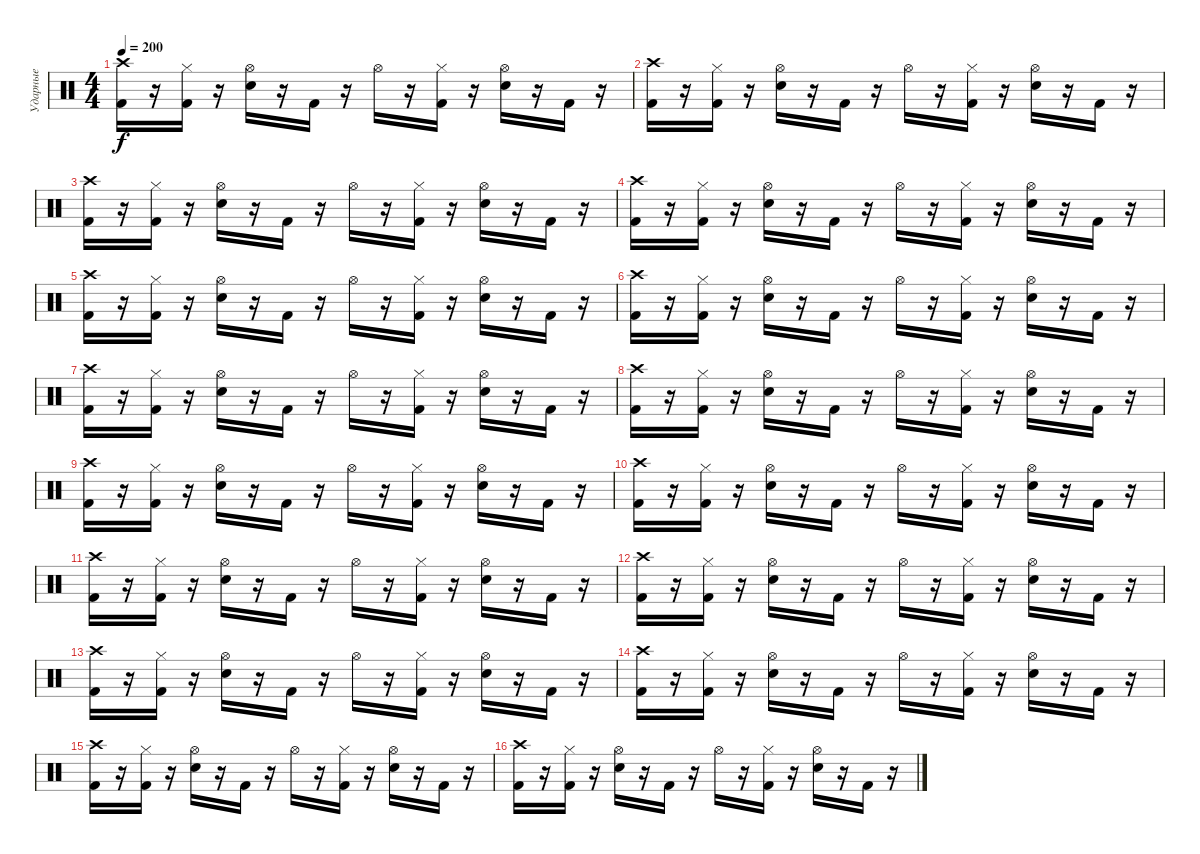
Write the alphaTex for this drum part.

\track ("Ударные" "Ударные") {instrument percussion}
\staff {score}
\articulation defaults
\ts (4 4)
\tempo 200
\clef neutral
\ks c
("Crash high (hit)" "Kick (hit) 2").16{dy f} r.16 ("Hi-Hat (closed)" "Kick (hit) 2").16 r.16 ("Hi-Hat (open)" "Electric Snare (hit)").16 r.16 "Kick (hit) 2".16 r.16 "Hi-Hat (open)".16 r.16 ("Hi-Hat (closed)" "Kick (hit) 2").16 r.16 ("Hi-Hat (open)" "Electric Snare (hit)").16 r.16 "Kick (hit) 2".16 r.16 |
("Crash high (hit)" "Kick (hit) 2").16 r.16 ("Hi-Hat (closed)" "Kick (hit) 2").16 r.16 ("Hi-Hat (open)" "Electric Snare (hit)").16 r.16 "Kick (hit) 2".16 r.16 "Hi-Hat (open)".16 r.16 ("Hi-Hat (closed)" "Kick (hit) 2").16 r.16 ("Hi-Hat (open)" "Electric Snare (hit)").16 r.16 "Kick (hit) 2".16 r.16 |
("Crash high (hit)" "Kick (hit) 2").16 r.16 ("Hi-Hat (closed)" "Kick (hit) 2").16 r.16 ("Hi-Hat (open)" "Electric Snare (hit)").16 r.16 "Kick (hit) 2".16 r.16 "Hi-Hat (open)".16 r.16 ("Hi-Hat (closed)" "Kick (hit) 2").16 r.16 ("Hi-Hat (open)" "Electric Snare (hit)").16 r.16 "Kick (hit) 2".16 r.16 |
("Crash high (hit)" "Kick (hit) 2").16 r.16 ("Hi-Hat (closed)" "Kick (hit) 2").16 r.16 ("Hi-Hat (open)" "Electric Snare (hit)").16 r.16 "Kick (hit) 2".16 r.16 "Hi-Hat (open)".16 r.16 ("Hi-Hat (closed)" "Kick (hit) 2").16 r.16 ("Hi-Hat (open)" "Electric Snare (hit)").16 r.16 "Kick (hit) 2".16 r.16 |
("Crash high (hit)" "Kick (hit) 2").16 r.16 ("Hi-Hat (closed)" "Kick (hit) 2").16 r.16 ("Hi-Hat (open)" "Electric Snare (hit)").16 r.16 "Kick (hit) 2".16 r.16 "Hi-Hat (open)".16 r.16 ("Hi-Hat (closed)" "Kick (hit) 2").16 r.16 ("Hi-Hat (open)" "Electric Snare (hit)").16 r.16 "Kick (hit) 2".16 r.16 |
("Crash high (hit)" "Kick (hit) 2").16 r.16 ("Hi-Hat (closed)" "Kick (hit) 2").16 r.16 ("Hi-Hat (open)" "Electric Snare (hit)").16 r.16 "Kick (hit) 2".16 r.16 "Hi-Hat (open)".16 r.16 ("Hi-Hat (closed)" "Kick (hit) 2").16 r.16 ("Hi-Hat (open)" "Electric Snare (hit)").16 r.16 "Kick (hit) 2".16 r.16 |
("Crash high (hit)" "Kick (hit) 2").16 r.16 ("Hi-Hat (closed)" "Kick (hit) 2").16 r.16 ("Hi-Hat (open)" "Electric Snare (hit)").16 r.16 "Kick (hit) 2".16 r.16 "Hi-Hat (open)".16 r.16 ("Hi-Hat (closed)" "Kick (hit) 2").16 r.16 ("Hi-Hat (open)" "Electric Snare (hit)").16 r.16 "Kick (hit) 2".16 r.16 |
("Crash high (hit)" "Kick (hit) 2").16 r.16 ("Hi-Hat (closed)" "Kick (hit) 2").16 r.16 ("Hi-Hat (open)" "Electric Snare (hit)").16 r.16 "Kick (hit) 2".16 r.16 "Hi-Hat (open)".16 r.16 ("Hi-Hat (closed)" "Kick (hit) 2").16 r.16 ("Hi-Hat (open)" "Electric Snare (hit)").16 r.16 "Kick (hit) 2".16 r.16 |
("Crash high (hit)" "Kick (hit) 2").16 r.16 ("Hi-Hat (closed)" "Kick (hit) 2").16 r.16 ("Hi-Hat (open)" "Electric Snare (hit)").16 r.16 "Kick (hit) 2".16 r.16 "Hi-Hat (open)".16 r.16 ("Hi-Hat (closed)" "Kick (hit) 2").16 r.16 ("Hi-Hat (open)" "Electric Snare (hit)").16 r.16 "Kick (hit) 2".16 r.16 |
("Crash high (hit)" "Kick (hit) 2").16 r.16 ("Hi-Hat (closed)" "Kick (hit) 2").16 r.16 ("Hi-Hat (open)" "Electric Snare (hit)").16 r.16 "Kick (hit) 2".16 r.16 "Hi-Hat (open)".16 r.16 ("Hi-Hat (closed)" "Kick (hit) 2").16 r.16 ("Hi-Hat (open)" "Electric Snare (hit)").16 r.16 "Kick (hit) 2".16 r.16 |
("Crash high (hit)" "Kick (hit) 2").16 r.16 ("Hi-Hat (closed)" "Kick (hit) 2").16 r.16 ("Hi-Hat (open)" "Electric Snare (hit)").16 r.16 "Kick (hit) 2".16 r.16 "Hi-Hat (open)".16 r.16 ("Hi-Hat (closed)" "Kick (hit) 2").16 r.16 ("Hi-Hat (open)" "Electric Snare (hit)").16 r.16 "Kick (hit) 2".16 r.16 |
("Crash high (hit)" "Kick (hit) 2").16 r.16 ("Hi-Hat (closed)" "Kick (hit) 2").16 r.16 ("Hi-Hat (open)" "Electric Snare (hit)").16 r.16 "Kick (hit) 2".16 r.16 "Hi-Hat (open)".16 r.16 ("Hi-Hat (closed)" "Kick (hit) 2").16 r.16 ("Hi-Hat (open)" "Electric Snare (hit)").16 r.16 "Kick (hit) 2".16 r.16 |
("Crash high (hit)" "Kick (hit) 2").16 r.16 ("Hi-Hat (closed)" "Kick (hit) 2").16 r.16 ("Hi-Hat (open)" "Electric Snare (hit)").16 r.16 "Kick (hit) 2".16 r.16 "Hi-Hat (open)".16 r.16 ("Hi-Hat (closed)" "Kick (hit) 2").16 r.16 ("Hi-Hat (open)" "Electric Snare (hit)").16 r.16 "Kick (hit) 2".16 r.16 |
("Crash high (hit)" "Kick (hit) 2").16 r.16 ("Hi-Hat (closed)" "Kick (hit) 2").16 r.16 ("Hi-Hat (open)" "Electric Snare (hit)").16 r.16 "Kick (hit) 2".16 r.16 "Hi-Hat (open)".16 r.16 ("Hi-Hat (closed)" "Kick (hit) 2").16 r.16 ("Hi-Hat (open)" "Electric Snare (hit)").16 r.16 "Kick (hit) 2".16 r.16 |
("Crash high (hit)" "Kick (hit) 2").16 r.16 ("Hi-Hat (closed)" "Kick (hit) 2").16 r.16 ("Hi-Hat (open)" "Electric Snare (hit)").16 r.16 "Kick (hit) 2".16 r.16 "Hi-Hat (open)".16 r.16 ("Hi-Hat (closed)" "Kick (hit) 2").16 r.16 ("Hi-Hat (open)" "Electric Snare (hit)").16 r.16 "Kick (hit) 2".16 r.16 |
("Crash high (hit)" "Kick (hit) 2").16 r.16 ("Hi-Hat (closed)" "Kick (hit) 2").16 r.16 ("Hi-Hat (open)" "Electric Snare (hit)").16 r.16 "Kick (hit) 2".16 r.16 "Hi-Hat (open)".16 r.16 ("Hi-Hat (closed)" "Kick (hit) 2").16 r.16 ("Hi-Hat (open)" "Electric Snare (hit)").16 r.16 "Kick (hit) 2".16 r.16
